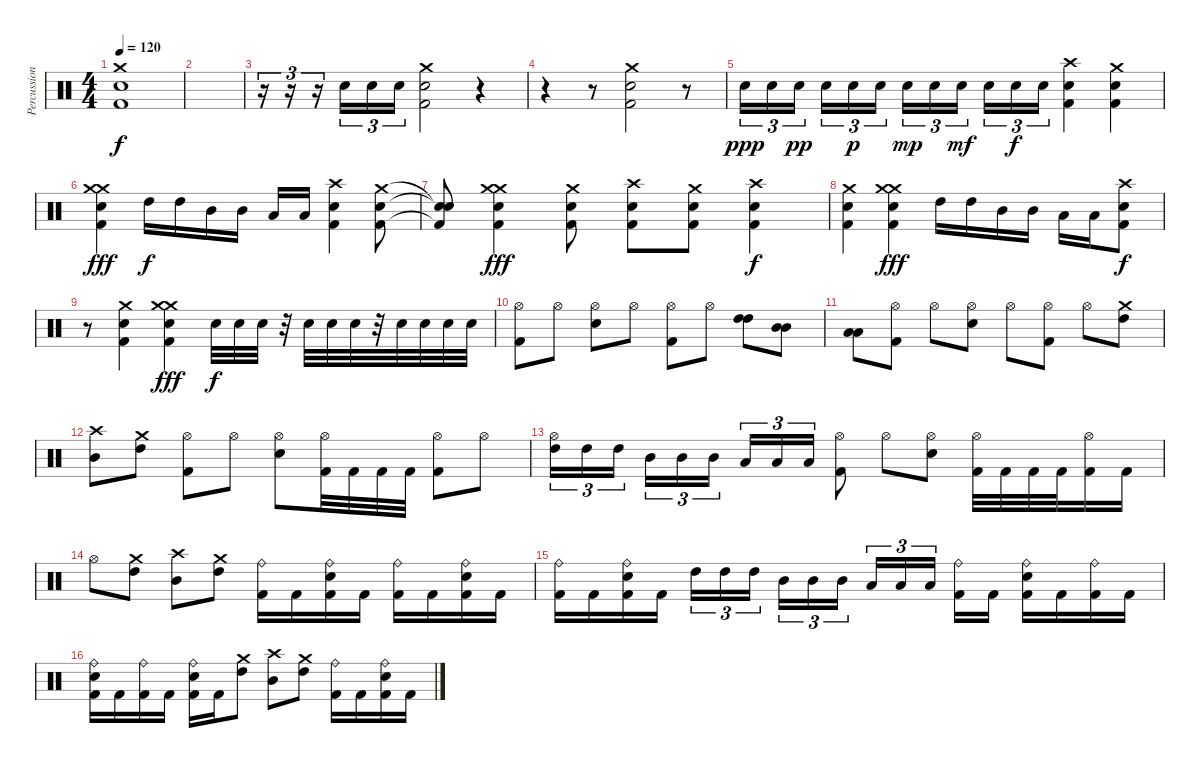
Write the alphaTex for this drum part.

\track ("Percussion" "Percussion") {instrument percussion}
\staff {score}
\articulation defaults
\ts (4 4)
\tempo 120
\clef neutral
\ks c
("Crash medium (hit)" "Electric Snare (hit)" "Kick (hit) 2").1{dy f} |
|
r.16{tu (3 2)} r.16{tu (3 2)} r.16{tu (3 2)} "Electric Snare (hit)".16{tu (3 2)} "Electric Snare (hit)".16{tu (3 2)} "Electric Snare (hit)".16{tu (3 2)} ("Crash medium (hit)" "Electric Snare (hit)" "Kick (hit) 2").2 r.4 |
r.4 r.8 ("Crash medium (hit)" "Electric Snare (hit)" "Kick (hit) 2").2 r.8 |
"Electric Snare (hit)".16{tu (3 2) dy ppp} "Electric Snare (hit)".16{tu (3 2)} "Electric Snare (hit)".16{tu (3 2) dy pp} "Electric Snare (hit)".16{tu (3 2)} "Electric Snare (hit)".16{tu (3 2) dy p} "Electric Snare (hit)".16{tu (3 2)} "Electric Snare (hit)".16{tu (3 2) dy mp} "Electric Snare (hit)".16{tu (3 2)} "Electric Snare (hit)".16{tu (3 2) dy mf} "Electric Snare (hit)".16{tu (3 2)} "Electric Snare (hit)".16{tu (3 2) dy f} "Electric Snare (hit)".16{tu (3 2)} ("Crash high (hit)" "Electric Snare (hit)" "Kick (hit) 2").4 ("Crash medium (hit)" "Electric Snare (hit)" "Kick (hit) 2").4 |
("Crash medium (hit)" "Crash medium (hit)" "Electric Snare (hit)" "Kick (hit) 2").4{dy fff} "High Tom (hit)".16{dy f} "High Tom (hit)".16 "Mid Tom (hit)".16 "Mid Tom (hit)".16 "Low Tom (hit)".16 "Low Tom (hit)".16 ("Crash high (hit)" "Electric Snare (hit)" "Kick (hit) 2").4 ("Crash medium (hit)" "Electric Snare (hit)" "Kick (hit) 2").8 |
("Snare (hit)"{t} "Snare (hit)"{t} "Kick (hit) 2"{t}).8 ("Crash medium (hit)" "Crash medium (hit)" "Electric Snare (hit)" "Kick (hit) 2").4{dy fff} ("Crash medium (hit)" "Electric Snare (hit)" "Kick (hit) 2").8 ("Crash high (hit)" "Electric Snare (hit)" "Kick (hit) 2").8 ("Crash medium (hit)" "Electric Snare (hit)" "Kick (hit) 2").8 ("Crash high (hit)" "Electric Snare (hit)" "Kick (hit) 2").4{dy f} |
("Crash medium (hit)" "Electric Snare (hit)" "Kick (hit) 2").4 ("Crash medium (hit)" "Crash medium (hit)" "Electric Snare (hit)" "Kick (hit) 2").4{dy fff} "High Tom (hit)".16 "High Tom (hit)".16 "Mid Tom (hit)".16 "Mid Tom (hit)".16 "Low Tom (hit)".16 "Low Tom (hit)".16 ("Crash high (hit)" "Electric Snare (hit)" "Kick (hit) 2").8{dy f} |
r.8 ("Crash medium (hit)" "Electric Snare (hit)" "Kick (hit) 2").4 ("Crash medium (hit)" "Crash medium (hit)" "Electric Snare (hit)" "Kick (hit) 2").4{dy fff} "Electric Snare (hit)".32{dy f} "Electric Snare (hit)".32 "Electric Snare (hit)".32 r.32 "Electric Snare (hit)".32 "Electric Snare (hit)".32 "Electric Snare (hit)".32 r.32 "Electric Snare (hit)".32 "Electric Snare (hit)".32 "Electric Snare (hit)".32 "Electric Snare (hit)".32 |
("Hi-Hat (open)" "Kick (hit) 2").8 "Hi-Hat (open)".8 ("Hi-Hat (open)" "Electric Snare (hit)").8 "Hi-Hat (open)".8 ("Hi-Hat (open)" "Kick (hit) 2").8 "Hi-Hat (open)".8 ("High Tom (hit)" "High Tom (hit)").8 ("Mid Tom (hit)" "Mid Tom (hit)").8 |
("Low Tom (hit)" "Low Tom (hit)").8 ("Hi-Hat (open)" "Kick (hit) 2").8 "Hi-Hat (open)".8 ("Hi-Hat (open)" "Electric Snare (hit)").8 "Hi-Hat (open)".8 ("Hi-Hat (open)" "Kick (hit) 2").8 "Hi-Hat (open)".8 ("Crash medium (hit)" "High Tom (hit)").8 |
("Crash high (hit)" "Mid Tom (hit)").8 ("Crash medium (hit)" "High Tom (hit)").8 ("Hi-Hat (open)" "Kick (hit) 2").8 "Hi-Hat (open)".8 ("Hi-Hat (open)" "Electric Snare (hit)").8 ("Hi-Hat (open)" "Kick (hit) 2").32 "Kick (hit) 2".32 "Kick (hit) 2".32 "Kick (hit) 2".32 ("Hi-Hat (open)" "Kick (hit) 2").8 "Hi-Hat (open)".8 |
("Hi-Hat (open)" "High Tom (hit)").16{tu (3 2)} "High Tom (hit)".16{tu (3 2)} "High Tom (hit)".16{tu (3 2)} "Mid Tom (hit)".16{tu (3 2)} "Mid Tom (hit)".16{tu (3 2)} "Mid Tom (hit)".16{tu (3 2)} "Low Tom (hit)".16{tu (3 2)} "Low Tom (hit)".16{tu (3 2)} "Low Tom (hit)".16{tu (3 2)} ("Hi-Hat (open)" "Kick (hit) 2").8 "Hi-Hat (open)".8 ("Hi-Hat (open)" "Electric Snare (hit)").8 ("Hi-Hat (open)" "Kick (hit) 2").32 "Kick (hit) 2".32 "Kick (hit) 2".32 "Kick (hit) 2".32 ("Hi-Hat (open)" "Kick (hit) 2").16 "Kick (hit) 2".16 |
"Hi-Hat (open)".8 ("Crash medium (hit)" "High Tom (hit)").8 ("Crash high (hit)" "Mid Tom (hit)").8 ("Crash medium (hit)" "High Tom (hit)").8 ("Ride (bell)" "Kick (hit) 2").16 "Kick (hit) 2".16 ("Ride (bell)" "Electric Snare (hit)" "Kick (hit) 2").16 "Kick (hit) 2".16 ("Ride (bell)" "Kick (hit) 2").16 "Kick (hit) 2".16 ("Ride (bell)" "Electric Snare (hit)" "Kick (hit) 2").16 "Kick (hit) 2".16 |
("Ride (bell)" "Kick (hit) 2").16 "Kick (hit) 2".16 ("Ride (bell)" "Electric Snare (hit)" "Kick (hit) 2").16 "Kick (hit) 2".16 "High Tom (hit)".16{tu (3 2)} "High Tom (hit)".16{tu (3 2)} "High Tom (hit)".16{tu (3 2)} "Mid Tom (hit)".16{tu (3 2)} "Mid Tom (hit)".16{tu (3 2)} "Mid Tom (hit)".16{tu (3 2)} "Low Tom (hit)".16{tu (3 2)} "Low Tom (hit)".16{tu (3 2)} "Low Tom (hit)".16{tu (3 2)} ("Ride (bell)" "Kick (hit) 2").16 "Kick (hit) 2".16 ("Ride (bell)" "Electric Snare (hit)" "Kick (hit) 2").16 "Kick (hit) 2".16 ("Ride (bell)" "Kick (hit) 2").16 "Kick (hit) 2".16 |
("Ride (bell)" "Electric Snare (hit)" "Kick (hit) 2").16 "Kick (hit) 2".16 ("Ride (bell)" "Kick (hit) 2").16 "Kick (hit) 2".16 ("Ride (bell)" "Electric Snare (hit)" "Kick (hit) 2").16 "Kick (hit) 2".16 ("Crash medium (hit)" "High Tom (hit)").8 ("Crash high (hit)" "Mid Tom (hit)").8 ("Crash medium (hit)" "High Tom (hit)").8 ("Ride (bell)" "Kick (hit) 2").16 "Kick (hit) 2".16 ("Ride (bell)" "Electric Snare (hit)" "Kick (hit) 2").16 "Kick (hit) 2".16
